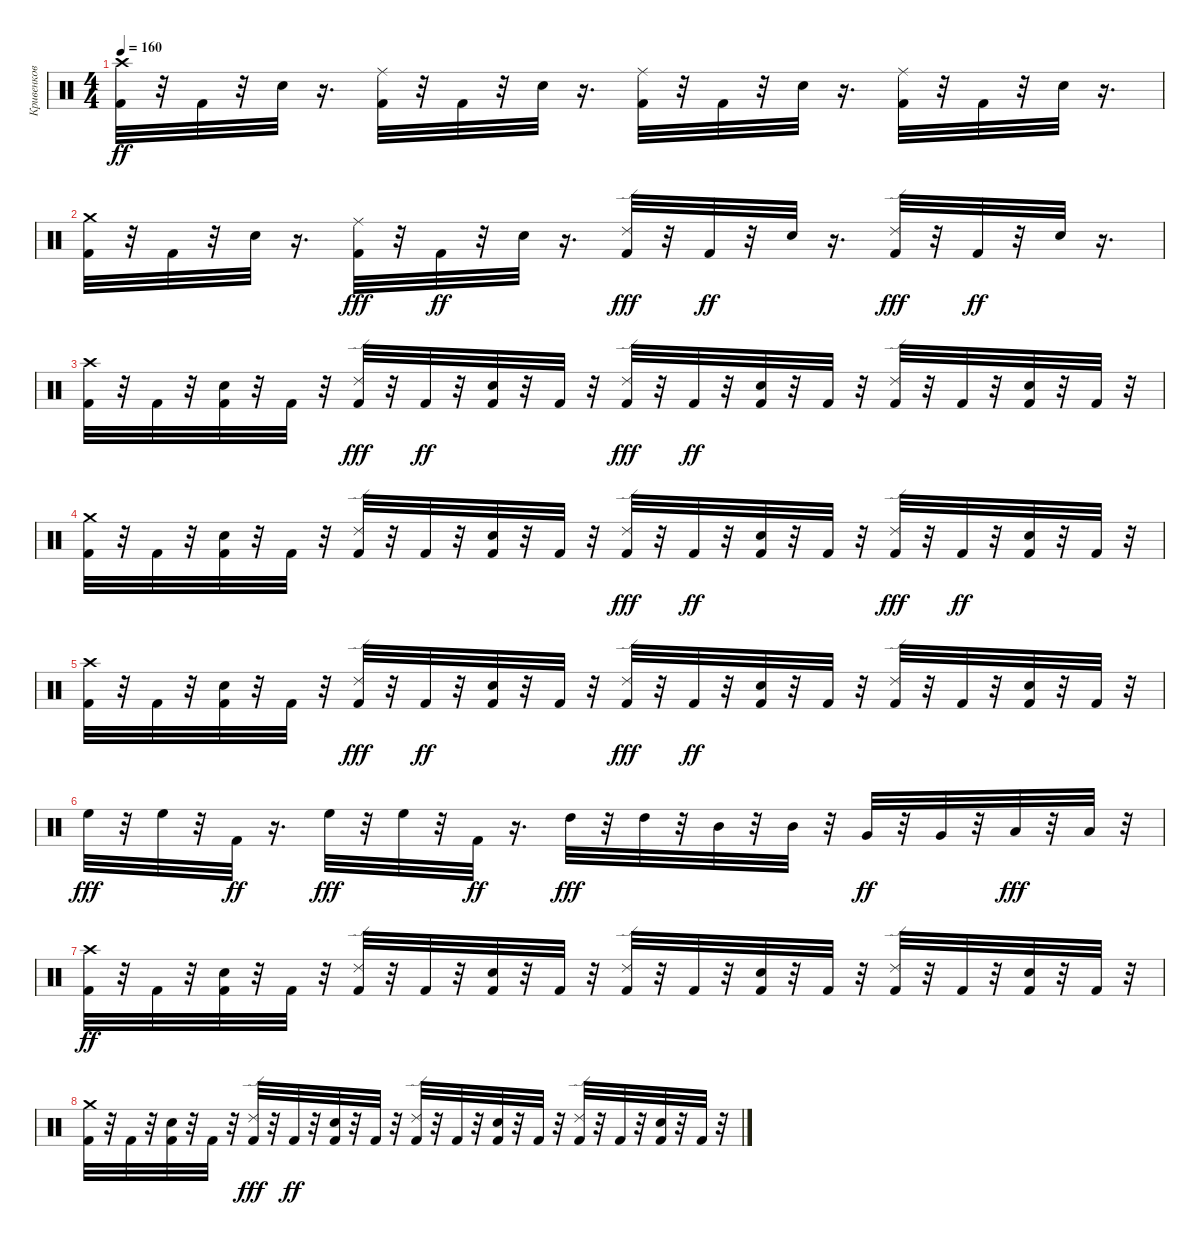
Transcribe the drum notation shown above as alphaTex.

\track ("Кривенков" "Кривенков") {instrument percussion}
\staff {score}
\articulation defaults
\ts (4 4)
\tempo 160
\clef neutral
\ks c
("Crash high (hit)" "Kick (hit) 2").32{dy ff} r.32 "Kick (hit) 2".32 r.32 "Electric Snare (hit)".32 r.16{d} ("Ride (middle)" "Kick (hit) 2").32 r.32 "Kick (hit) 2".32 r.32 "Electric Snare (hit)".32 r.16{d} ("Ride (middle)" "Kick (hit) 2").32 r.32 "Kick (hit) 2".32 r.32 "Electric Snare (hit)".32 r.16{d} ("Ride (middle)" "Kick (hit) 2").32 r.32 "Kick (hit) 2".32 r.32 "Electric Snare (hit)".32 r.16{d} |
("Crash medium (hit)" "Kick (hit) 2").32 r.32 "Kick (hit) 2".32 r.32 "Electric Snare (hit)".32 r.16{d} ("Kick (hit) 2" "Ride (middle)").32{dy fff} r.32 "Kick (hit) 2".32{dy ff} r.32 "Electric Snare (hit)".32 r.16{d} ("Kick (hit) 2" "Ride (edge) 2").32{dy fff} r.32 "Kick (hit) 2".32{dy ff} r.32 "Electric Snare (hit)".32 r.16{d} ("Kick (hit) 2" "Ride (edge) 2").32{dy fff} r.32 "Kick (hit) 2".32{dy ff} r.32 "Electric Snare (hit)".32 r.16{d} |
("Kick (hit) 2" "Crash high (hit)").32 r.32 "Kick (hit) 2".32 r.32 ("Electric Snare (hit)" "Kick (hit) 2").32 r.32 "Kick (hit) 2".32 r.32 ("Kick (hit) 2" "Ride (edge) 2").32{dy fff} r.32 "Kick (hit) 2".32{dy ff} r.32 ("Kick (hit) 2" "Electric Snare (hit)").32 r.32 "Kick (hit) 2".32 r.32 ("Kick (hit) 2" "Ride (edge) 2").32{dy fff} r.32 "Kick (hit) 2".32{dy ff} r.32 ("Kick (hit) 2" "Electric Snare (hit)").32 r.32 "Kick (hit) 2".32 r.32 ("Ride (edge) 2" "Kick (hit) 2").32 r.32 "Kick (hit) 2".32 r.32 ("Electric Snare (hit)" "Kick (hit) 2").32 r.32 "Kick (hit) 2".32 r.32 |
("Crash medium (hit)" "Kick (hit) 2").32 r.32 "Kick (hit) 2".32 r.32 ("Electric Snare (hit)" "Kick (hit) 2").32 r.32 "Kick (hit) 2".32 r.32 ("Ride (edge) 2" "Kick (hit) 2").32 r.32 "Kick (hit) 2".32 r.32 ("Electric Snare (hit)" "Kick (hit) 2").32 r.32 "Kick (hit) 2".32 r.32 ("Kick (hit) 2" "Ride (edge) 2").32{dy fff} r.32 "Kick (hit) 2".32{dy ff} r.32 ("Kick (hit) 2" "Electric Snare (hit)").32 r.32 "Kick (hit) 2".32 r.32 ("Kick (hit) 2" "Ride (edge) 2").32{dy fff} r.32 "Kick (hit) 2".32{dy ff} r.32 ("Kick (hit) 2" "Electric Snare (hit)").32 r.32 "Kick (hit) 2".32 r.32 |
("Crash high (hit)" "Kick (hit) 2").32 r.32 "Kick (hit) 2".32 r.32 ("Electric Snare (hit)" "Kick (hit) 2").32 r.32 "Kick (hit) 2".32 r.32 ("Kick (hit) 2" "Ride (edge) 2").32{dy fff} r.32 "Kick (hit) 2".32{dy ff} r.32 ("Electric Snare (hit)" "Kick (hit) 2").32 r.32 "Kick (hit) 2".32 r.32 ("Kick (hit) 2" "Ride (edge) 2").32{dy fff} r.32 "Kick (hit) 2".32{dy ff} r.32 ("Kick (hit) 2" "Electric Snare (hit)").32 r.32 "Kick (hit) 2".32 r.32 ("Ride (edge) 2" "Kick (hit) 2").32 r.32 "Kick (hit) 2".32 r.32 ("Electric Snare (hit)" "Kick (hit) 2").32 r.32 "Kick (hit) 2".32 r.32 |
"High Floor Tom (hit)".32{dy fff} r.32 "High Floor Tom (hit)".32 r.32 "Kick (hit) 2".32{dy ff} r.16{d} "High Floor Tom (hit)".32{dy fff} r.32 "High Floor Tom (hit)".32 r.32 "Kick (hit) 2".32{dy ff} r.16{d} "High Tom (hit)".32{dy fff} r.32 "High Tom (hit)".32 r.32 "Mid Tom (hit)".32 r.32 "Mid Tom (hit)".32 r.32 "Very Low Tom (hit)".32{dy ff} r.32 "Very Low Tom (hit)".32 r.32 "Low Tom (hit)".32{dy fff} r.32 "Low Tom (hit)".32 r.32 |
("Crash high (hit)" "Kick (hit) 2").32{dy ff} r.32 "Kick (hit) 2".32 r.32 ("Kick (hit) 2" "Electric Snare (hit)").32 r.32 "Kick (hit) 2".32 r.32 ("Ride (edge) 2" "Kick (hit) 2").32 r.32 "Kick (hit) 2".32 r.32 ("Electric Snare (hit)" "Kick (hit) 2").32 r.32 "Kick (hit) 2".32 r.32 ("Ride (edge) 2" "Kick (hit) 2").32 r.32 "Kick (hit) 2".32 r.32 ("Kick (hit) 2" "Electric Snare (hit)").32 r.32 "Kick (hit) 2".32 r.32 ("Ride (edge) 2" "Kick (hit) 2").32 r.32 "Kick (hit) 2".32 r.32 ("Electric Snare (hit)" "Kick (hit) 2").32 r.32 "Kick (hit) 2".32 r.32 |
("Kick (hit) 2" "Crash medium (hit)").32 r.32 "Kick (hit) 2".32 r.32 ("Electric Snare (hit)" "Kick (hit) 2").32 r.32 "Kick (hit) 2".32 r.32 ("Kick (hit) 2" "Ride (edge) 2").32{dy fff} r.32 "Kick (hit) 2".32{dy ff} r.32 ("Kick (hit) 2" "Electric Snare (hit)").32 r.32 "Kick (hit) 2".32 r.32 ("Ride (edge) 2" "Kick (hit) 2").32 r.32 "Kick (hit) 2".32 r.32 ("Electric Snare (hit)" "Kick (hit) 2").32 r.32 "Kick (hit) 2".32 r.32 ("Ride (edge) 2" "Kick (hit) 2").32 r.32 "Kick (hit) 2".32 r.32 ("Electric Snare (hit)" "Kick (hit) 2").32 r.32 "Kick (hit) 2".32 r.32
